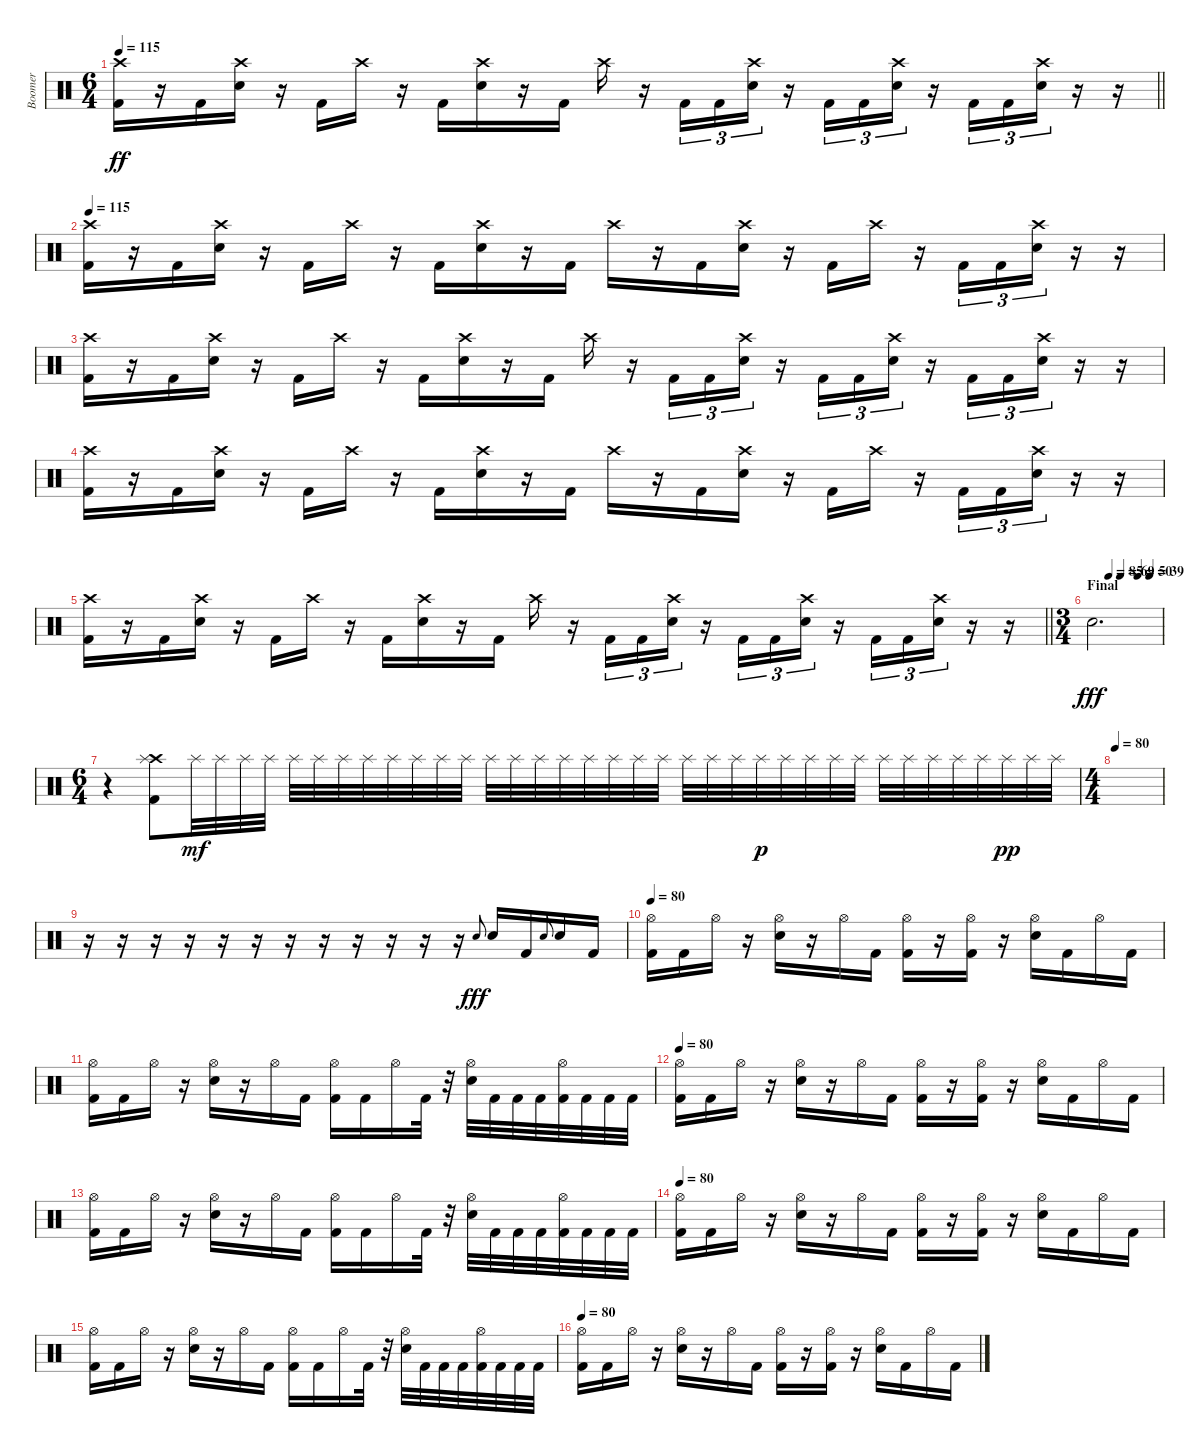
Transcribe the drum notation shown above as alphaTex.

\track ("Boomer" "Boomer") {instrument percussion}
\staff {score}
\articulation defaults
\ts (6 4)
\tempo 115
\clef neutral
\barLineRight lightlight
\ks c
("Crash high (hit)" "Kick (hit) 2").16{dy ff} r.16 "Kick (hit) 2".16 ("Crash high (hit)" "Electric Snare (hit)").16 r.16 "Kick (hit) 2".16 "Crash high (hit)".16 r.16 "Kick (hit) 2".16 ("Crash high (hit)" "Electric Snare (hit)").16 r.16 "Kick (hit) 2".16 "Crash high (hit)".16 r.16 "Kick (hit) 2".16{tu (3 2)} "Kick (hit) 2".16{tu (3 2)} ("Crash high (hit)" "Electric Snare (hit)").16{tu (3 2)} r.16 "Kick (hit) 2".16{tu (3 2)} "Kick (hit) 2".16{tu (3 2)} ("Crash high (hit)" "Electric Snare (hit)").16{tu (3 2)} r.16 "Kick (hit) 2".16{tu (3 2)} "Kick (hit) 2".16{tu (3 2)} ("Crash high (hit)" "Electric Snare (hit)").16{tu (3 2)} r.16 r.16 |
\section ("" "")
\tempo 115
("Crash high (hit)" "Kick (hit) 2").16 r.16 "Kick (hit) 2".16 ("Crash high (hit)" "Electric Snare (hit)").16 r.16 "Kick (hit) 2".16 "Crash high (hit)".16 r.16 "Kick (hit) 2".16 ("Crash high (hit)" "Electric Snare (hit)").16 r.16 "Kick (hit) 2".16 "Crash high (hit)".16 r.16 "Kick (hit) 2".16 ("Crash high (hit)" "Electric Snare (hit)").16 r.16 "Kick (hit) 2".16 "Crash high (hit)".16 r.16 "Kick (hit) 2".16{tu (3 2)} "Kick (hit) 2".16{tu (3 2)} ("Crash high (hit)" "Electric Snare (hit)").16{tu (3 2)} r.16 r.16 |
("Crash high (hit)" "Kick (hit) 2").16 r.16 "Kick (hit) 2".16 ("Crash high (hit)" "Electric Snare (hit)").16 r.16 "Kick (hit) 2".16 "Crash high (hit)".16 r.16 "Kick (hit) 2".16 ("Crash high (hit)" "Electric Snare (hit)").16 r.16 "Kick (hit) 2".16 "Crash high (hit)".16 r.16 "Kick (hit) 2".16{tu (3 2)} "Kick (hit) 2".16{tu (3 2)} ("Crash high (hit)" "Electric Snare (hit)").16{tu (3 2)} r.16 "Kick (hit) 2".16{tu (3 2)} "Kick (hit) 2".16{tu (3 2)} ("Crash high (hit)" "Electric Snare (hit)").16{tu (3 2)} r.16 "Kick (hit) 2".16{tu (3 2)} "Kick (hit) 2".16{tu (3 2)} ("Crash high (hit)" "Electric Snare (hit)").16{tu (3 2)} r.16 r.16 |
("Crash high (hit)" "Kick (hit) 2").16 r.16 "Kick (hit) 2".16 ("Crash high (hit)" "Electric Snare (hit)").16 r.16 "Kick (hit) 2".16 "Crash high (hit)".16 r.16 "Kick (hit) 2".16 ("Crash high (hit)" "Electric Snare (hit)").16 r.16 "Kick (hit) 2".16 "Crash high (hit)".16 r.16 "Kick (hit) 2".16 ("Crash high (hit)" "Electric Snare (hit)").16 r.16 "Kick (hit) 2".16 "Crash high (hit)".16 r.16 "Kick (hit) 2".16{tu (3 2)} "Kick (hit) 2".16{tu (3 2)} ("Crash high (hit)" "Electric Snare (hit)").16{tu (3 2)} r.16 r.16 |
\barLineRight lightlight
("Crash high (hit)" "Kick (hit) 2").16 r.16 "Kick (hit) 2".16 ("Crash high (hit)" "Electric Snare (hit)").16 r.16 "Kick (hit) 2".16 "Crash high (hit)".16 r.16 "Kick (hit) 2".16 ("Crash high (hit)" "Electric Snare (hit)").16 r.16 "Kick (hit) 2".16 "Crash high (hit)".16 r.16 "Kick (hit) 2".16{tu (3 2)} "Kick (hit) 2".16{tu (3 2)} ("Crash high (hit)" "Electric Snare (hit)").16{tu (3 2)} r.16 "Kick (hit) 2".16{tu (3 2)} "Kick (hit) 2".16{tu (3 2)} ("Crash high (hit)" "Electric Snare (hit)").16{tu (3 2)} r.16 "Kick (hit) 2".16{tu (3 2)} "Kick (hit) 2".16{tu (3 2)} ("Crash high (hit)" "Electric Snare (hit)").16{tu (3 2)} r.16 r.16 |
\ts (3 4)
\section ("" "Final")
\tempo (85 0.25)
\tempo (69 0.4166666666666667)
\tempo (50 0.6666666666666666)
\tempo (39 0.8333333333333334)
"Electric Snare (hit)".2{d dy fff} |
\ts (6 4)
r.4 ("Crash high (hit)" "Splash (hit)" "Kick (hit) 2").8 "Splash (hit)".32{dy mf} "Splash (hit)".32 "Splash (hit)".32 "Splash (hit)".32 "Splash (hit)".32 "Splash (hit)".32 "Splash (hit)".32 "Splash (hit)".32 "Splash (hit)".32 "Splash (hit)".32 "Splash (hit)".32 "Splash (hit)".32 "Splash (hit)".32 "Splash (hit)".32 "Splash (hit)".32 "Splash (hit)".32 "Splash (hit)".32 "Splash (hit)".32 "Splash (hit)".32 "Splash (hit)".32 "Splash (hit)".32 "Splash (hit)".32 "Splash (hit)".32 "Splash (hit)".32{dy p} "Splash (hit)".32 "Splash (hit)".32 "Splash (hit)".32 "Splash (hit)".32 "Splash (hit)".32 "Splash (hit)".32 "Splash (hit)".32 "Splash (hit)".32 "Splash (hit)".32 "Splash (hit)".32{dy pp} "Splash (hit)".32 "Splash (hit)".32 |
\ts (4 4)
\tempo 80
|
r.16 r.16 r.16 r.16 r.16 r.16 r.16 r.16 r.16 r.16 r.16 r.16 "Electric Snare (hit)".8{gr onbeat dy fff} "Electric Snare (hit)".16 "Kick (hit) 2".16 "Electric Snare (hit)".8{gr onbeat} "Electric Snare (hit)".16 "Kick (hit) 2".16 |
\tempo 80
("Hi-Hat (open)" "Kick (hit) 2").16 "Kick (hit) 2".16 "Hi-Hat (open)".16 r.16 ("Hi-Hat (open)" "Electric Snare (hit)").16 r.16 "Hi-Hat (open)".16 "Kick (hit) 2".16 ("Hi-Hat (open)" "Kick (hit) 2").16 r.16 ("Hi-Hat (open)" "Kick (hit) 2").16 r.16 ("Hi-Hat (open)" "Electric Snare (hit)").16 "Kick (hit) 2".16 "Hi-Hat (open)".16 "Kick (hit) 2".16 |
("Hi-Hat (open)" "Kick (hit) 2").16 "Kick (hit) 2".16 "Hi-Hat (open)".16 r.16 ("Hi-Hat (open)" "Electric Snare (hit)").16 r.16 "Hi-Hat (open)".16 "Kick (hit) 2".16 ("Hi-Hat (open)" "Kick (hit) 2").16 "Kick (hit) 2".16 "Hi-Hat (open)".16 "Kick (hit) 2".32 r.32 ("Hi-Hat (open)" "Electric Snare (hit)").32 "Kick (hit) 2".32 "Kick (hit) 2".32 "Kick (hit) 2".32 ("Hi-Hat (open)" "Kick (hit) 2").32 "Kick (hit) 2".32 "Kick (hit) 2".32 "Kick (hit) 2".32 |
\tempo 80
("Hi-Hat (open)" "Kick (hit) 2").16 "Kick (hit) 2".16 "Hi-Hat (open)".16 r.16 ("Hi-Hat (open)" "Electric Snare (hit)").16 r.16 "Hi-Hat (open)".16 "Kick (hit) 2".16 ("Hi-Hat (open)" "Kick (hit) 2").16 r.16 ("Hi-Hat (open)" "Kick (hit) 2").16 r.16 ("Hi-Hat (open)" "Electric Snare (hit)").16 "Kick (hit) 2".16 "Hi-Hat (open)".16 "Kick (hit) 2".16 |
("Hi-Hat (open)" "Kick (hit) 2").16 "Kick (hit) 2".16 "Hi-Hat (open)".16 r.16 ("Hi-Hat (open)" "Electric Snare (hit)").16 r.16 "Hi-Hat (open)".16 "Kick (hit) 2".16 ("Hi-Hat (open)" "Kick (hit) 2").16 "Kick (hit) 2".16 "Hi-Hat (open)".16 "Kick (hit) 2".32 r.32 ("Hi-Hat (open)" "Electric Snare (hit)").32 "Kick (hit) 2".32 "Kick (hit) 2".32 "Kick (hit) 2".32 ("Hi-Hat (open)" "Kick (hit) 2").32 "Kick (hit) 2".32 "Kick (hit) 2".32 "Kick (hit) 2".32 |
\tempo 80
("Hi-Hat (open)" "Kick (hit) 2").16 "Kick (hit) 2".16 "Hi-Hat (open)".16 r.16 ("Hi-Hat (open)" "Electric Snare (hit)").16 r.16 "Hi-Hat (open)".16 "Kick (hit) 2".16 ("Hi-Hat (open)" "Kick (hit) 2").16 r.16 ("Hi-Hat (open)" "Kick (hit) 2").16 r.16 ("Hi-Hat (open)" "Electric Snare (hit)").16 "Kick (hit) 2".16 "Hi-Hat (open)".16 "Kick (hit) 2".16 |
("Hi-Hat (open)" "Kick (hit) 2").16 "Kick (hit) 2".16 "Hi-Hat (open)".16 r.16 ("Hi-Hat (open)" "Electric Snare (hit)").16 r.16 "Hi-Hat (open)".16 "Kick (hit) 2".16 ("Hi-Hat (open)" "Kick (hit) 2").16 "Kick (hit) 2".16 "Hi-Hat (open)".16 "Kick (hit) 2".32 r.32 ("Hi-Hat (open)" "Electric Snare (hit)").32 "Kick (hit) 2".32 "Kick (hit) 2".32 "Kick (hit) 2".32 ("Hi-Hat (open)" "Kick (hit) 2").32 "Kick (hit) 2".32 "Kick (hit) 2".32 "Kick (hit) 2".32 |
\tempo 80
("Hi-Hat (open)" "Kick (hit) 2").16 "Kick (hit) 2".16 "Hi-Hat (open)".16 r.16 ("Hi-Hat (open)" "Electric Snare (hit)").16 r.16 "Hi-Hat (open)".16 "Kick (hit) 2".16 ("Hi-Hat (open)" "Kick (hit) 2").16 r.16 ("Hi-Hat (open)" "Kick (hit) 2").16 r.16 ("Hi-Hat (open)" "Electric Snare (hit)").16 "Kick (hit) 2".16 "Hi-Hat (open)".16 "Kick (hit) 2".16
